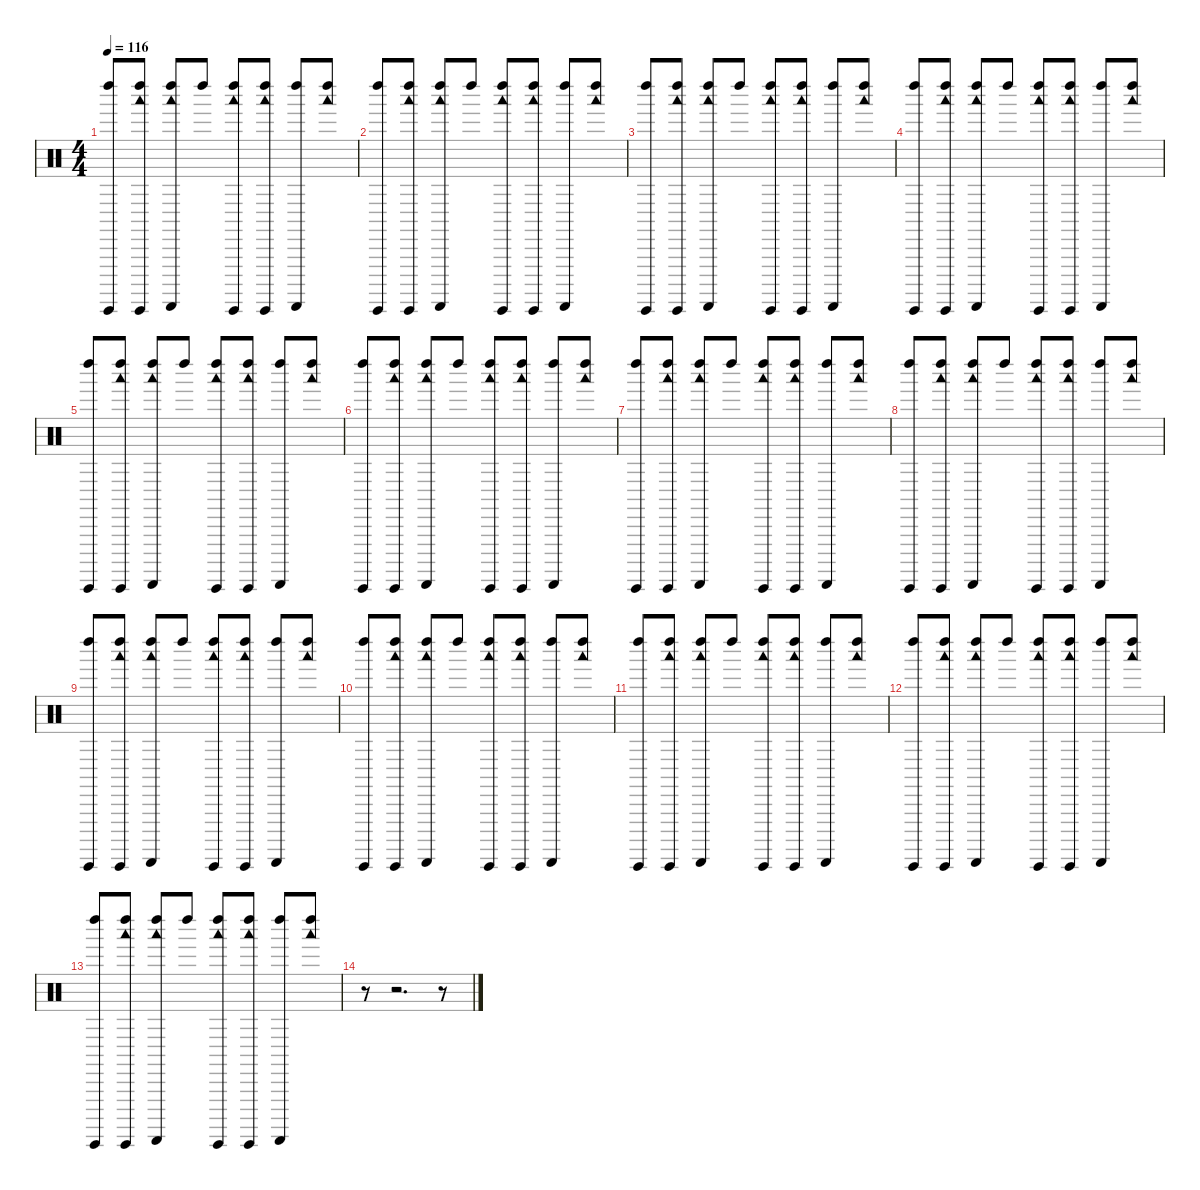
\defaultSystemsLayout 4
\hideDynamics
\bracketExtendMode nobrackets
\singleTrackTrackNamePolicy hidden
\multiTrackTrackNamePolicy hidden
\firstSystemTrackNameMode fullname
\firstSystemTrackNameOrientation horizontal
\otherSystemsTrackNameOrientation horizontal
\track ("Percussions" "drm.") {instrument percussion}
\staff {score}
\articulation defaults
\ts (4 4)
\tempo 116
\clef neutral
\ks c
("Guiro (hit)" "Left Maraca (hit)").8{dy f beam Up} ("Guiro (hit)" "Left Maraca (hit)" "Woodblock low (hit)").8{beam Up} ("Guiro (scrap-return)" "Left Maraca (hit)" "Woodblock low (hit)").8{beam Up} "Left Maraca (hit)".8{beam Up} ("Guiro (hit)" "Left Maraca (hit)" "Woodblock low (hit)").8{beam Up} ("Guiro (hit)" "Left Maraca (hit)" "Woodblock low (hit)").8{beam Up} ("Guiro (scrap-return)" "Left Maraca (hit)").8{beam Up} ("Left Maraca (hit)" "Woodblock low (hit)").8{beam Up} |
("Guiro (hit)" "Left Maraca (hit)").8{beam Up} ("Guiro (hit)" "Left Maraca (hit)" "Woodblock low (hit)").8{beam Up} ("Guiro (scrap-return)" "Left Maraca (hit)" "Woodblock low (hit)").8{beam Up} "Left Maraca (hit)".8{beam Up} ("Guiro (hit)" "Left Maraca (hit)" "Woodblock low (hit)").8{beam Up} ("Guiro (hit)" "Left Maraca (hit)" "Woodblock low (hit)").8{beam Up} ("Guiro (scrap-return)" "Left Maraca (hit)").8{beam Up} ("Left Maraca (hit)" "Woodblock low (hit)").8{beam Up} |
("Guiro (hit)" "Left Maraca (hit)").8{beam Up} ("Guiro (hit)" "Left Maraca (hit)" "Woodblock low (hit)").8{beam Up} ("Guiro (scrap-return)" "Left Maraca (hit)" "Woodblock low (hit)").8{beam Up} "Left Maraca (hit)".8{beam Up} ("Guiro (hit)" "Left Maraca (hit)" "Woodblock low (hit)").8{beam Up} ("Guiro (hit)" "Left Maraca (hit)" "Woodblock low (hit)").8{beam Up} ("Guiro (scrap-return)" "Left Maraca (hit)").8{beam Up} ("Left Maraca (hit)" "Woodblock low (hit)").8{beam Up} |
("Guiro (hit)" "Left Maraca (hit)").8{beam Up} ("Guiro (hit)" "Left Maraca (hit)" "Woodblock low (hit)").8{beam Up} ("Guiro (scrap-return)" "Left Maraca (hit)" "Woodblock low (hit)").8{beam Up} "Left Maraca (hit)".8{beam Up} ("Guiro (hit)" "Left Maraca (hit)" "Woodblock low (hit)").8{beam Up} ("Guiro (hit)" "Left Maraca (hit)" "Woodblock low (hit)").8{beam Up} ("Guiro (scrap-return)" "Left Maraca (hit)").8{beam Up} ("Left Maraca (hit)" "Woodblock low (hit)").8{beam Up} |
("Guiro (hit)" "Left Maraca (hit)").8{beam Up} ("Guiro (hit)" "Left Maraca (hit)" "Woodblock low (hit)").8{beam Up} ("Guiro (scrap-return)" "Left Maraca (hit)" "Woodblock low (hit)").8{beam Up} "Left Maraca (hit)".8{beam Up} ("Guiro (hit)" "Left Maraca (hit)" "Woodblock low (hit)").8{beam Up} ("Guiro (hit)" "Left Maraca (hit)" "Woodblock low (hit)").8{beam Up} ("Guiro (scrap-return)" "Left Maraca (hit)").8{beam Up} ("Left Maraca (hit)" "Woodblock low (hit)").8{beam Up} |
("Guiro (hit)" "Left Maraca (hit)").8{beam Up} ("Guiro (hit)" "Left Maraca (hit)" "Woodblock low (hit)").8{beam Up} ("Guiro (scrap-return)" "Left Maraca (hit)" "Woodblock low (hit)").8{beam Up} "Left Maraca (hit)".8{beam Up} ("Guiro (hit)" "Left Maraca (hit)" "Woodblock low (hit)").8{beam Up} ("Guiro (hit)" "Left Maraca (hit)" "Woodblock low (hit)").8{beam Up} ("Guiro (scrap-return)" "Left Maraca (hit)").8{beam Up} ("Left Maraca (hit)" "Woodblock low (hit)").8{beam Up} |
("Guiro (hit)" "Left Maraca (hit)").8{beam Up} ("Guiro (hit)" "Left Maraca (hit)" "Woodblock low (hit)").8{beam Up} ("Guiro (scrap-return)" "Left Maraca (hit)" "Woodblock low (hit)").8{beam Up} "Left Maraca (hit)".8{beam Up} ("Guiro (hit)" "Left Maraca (hit)" "Woodblock low (hit)").8{beam Up} ("Guiro (hit)" "Left Maraca (hit)" "Woodblock low (hit)").8{beam Up} ("Guiro (scrap-return)" "Left Maraca (hit)").8{beam Up} ("Left Maraca (hit)" "Woodblock low (hit)").8{beam Up} |
("Guiro (hit)" "Left Maraca (hit)").8{beam Up} ("Guiro (hit)" "Left Maraca (hit)" "Woodblock low (hit)").8{beam Up} ("Guiro (scrap-return)" "Left Maraca (hit)" "Woodblock low (hit)").8{beam Up} "Left Maraca (hit)".8{beam Up} ("Guiro (hit)" "Left Maraca (hit)" "Woodblock low (hit)").8{beam Up} ("Guiro (hit)" "Left Maraca (hit)" "Woodblock low (hit)").8{beam Up} ("Guiro (scrap-return)" "Left Maraca (hit)").8{beam Up} ("Left Maraca (hit)" "Woodblock low (hit)").8{beam Up} |
("Guiro (hit)" "Left Maraca (hit)").8{beam Up} ("Guiro (hit)" "Left Maraca (hit)" "Woodblock low (hit)").8{beam Up} ("Guiro (scrap-return)" "Left Maraca (hit)" "Woodblock low (hit)").8{beam Up} "Left Maraca (hit)".8{beam Up} ("Guiro (hit)" "Left Maraca (hit)" "Woodblock low (hit)").8{beam Up} ("Guiro (hit)" "Left Maraca (hit)" "Woodblock low (hit)").8{beam Up} ("Guiro (scrap-return)" "Left Maraca (hit)").8{beam Up} ("Left Maraca (hit)" "Woodblock low (hit)").8{beam Up} |
("Guiro (hit)" "Left Maraca (hit)").8{beam Up} ("Guiro (hit)" "Left Maraca (hit)" "Woodblock low (hit)").8{beam Up} ("Guiro (scrap-return)" "Left Maraca (hit)" "Woodblock low (hit)").8{beam Up} "Left Maraca (hit)".8{beam Up} ("Guiro (hit)" "Left Maraca (hit)" "Woodblock low (hit)").8{beam Up} ("Guiro (hit)" "Left Maraca (hit)" "Woodblock low (hit)").8{beam Up} ("Guiro (scrap-return)" "Left Maraca (hit)").8{beam Up} ("Left Maraca (hit)" "Woodblock low (hit)").8{beam Up} |
("Guiro (hit)" "Left Maraca (hit)").8{beam Up} ("Guiro (hit)" "Left Maraca (hit)" "Woodblock low (hit)").8{beam Up} ("Guiro (scrap-return)" "Left Maraca (hit)" "Woodblock low (hit)").8{beam Up} "Left Maraca (hit)".8{beam Up} ("Guiro (hit)" "Left Maraca (hit)" "Woodblock low (hit)").8{beam Up} ("Guiro (hit)" "Left Maraca (hit)" "Woodblock low (hit)").8{beam Up} ("Guiro (scrap-return)" "Left Maraca (hit)").8{beam Up} ("Left Maraca (hit)" "Woodblock low (hit)").8{beam Up} |
("Guiro (hit)" "Left Maraca (hit)").8{beam Up} ("Guiro (hit)" "Left Maraca (hit)" "Woodblock low (hit)").8{beam Up} ("Guiro (scrap-return)" "Left Maraca (hit)" "Woodblock low (hit)").8{beam Up} "Left Maraca (hit)".8{beam Up} ("Guiro (hit)" "Left Maraca (hit)" "Woodblock low (hit)").8{beam Up} ("Guiro (hit)" "Left Maraca (hit)" "Woodblock low (hit)").8{beam Up} ("Guiro (scrap-return)" "Left Maraca (hit)").8{beam Up} ("Left Maraca (hit)" "Woodblock low (hit)").8{beam Up} |
("Guiro (hit)" "Left Maraca (hit)").8{beam Up} ("Guiro (hit)" "Left Maraca (hit)" "Woodblock low (hit)").8{beam Up} ("Guiro (scrap-return)" "Left Maraca (hit)" "Woodblock low (hit)").8{beam Up} "Left Maraca (hit)".8{beam Up} ("Guiro (hit)" "Left Maraca (hit)" "Woodblock low (hit)").8{beam Up} ("Guiro (hit)" "Left Maraca (hit)" "Woodblock low (hit)").8{beam Up} ("Guiro (scrap-return)" "Left Maraca (hit)").8{beam Up} ("Left Maraca (hit)" "Woodblock low (hit)").8{beam Up} |
r.8{beam Down} r.2{d beam Down} r.8{beam Down}
